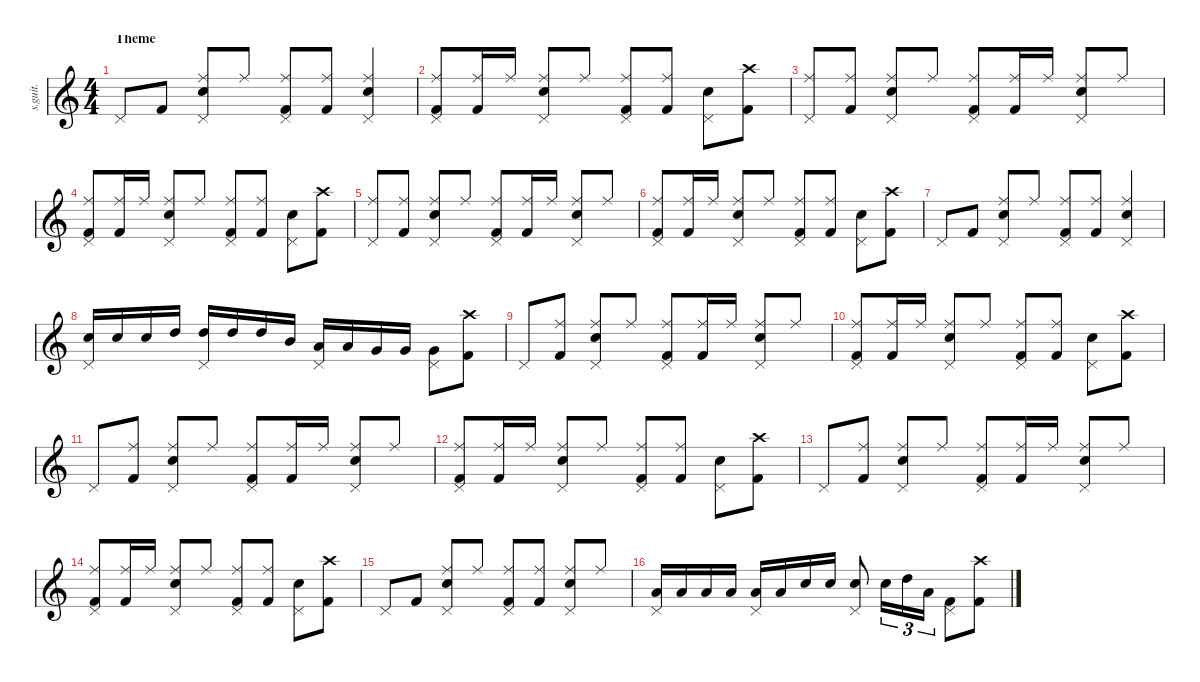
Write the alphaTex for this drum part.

\defaultSystemsLayout 4
\hideDynamics
\bracketExtendMode nobrackets
\track ("Nicko McBrain" "s.guit.") {instrument percussion}
\staff {score}
\articulation defaults
\ts (4 4)
\section ("" "Theme")
\tempo (162 hide)
\clef g2
\ks c "Pedal Hi-Hat (hit)".8{dy mf} "Kick (hit) 2".8
("Pedal Hi-Hat (hit)" "Snare (hit) 2" "Ride (middle)").8 "Ride (middle)".8 ("Ride (middle)" "Pedal Hi-Hat (hit)" "Kick (hit) 2").8 ("Ride (middle)" "Kick (hit) 2").8 ("Ride (middle)" "Snare (hit) 2" "Pedal Hi-Hat (hit)").4 |
("Ride (middle)" "Pedal Hi-Hat (hit)" "Kick (hit) 2").8 ("Ride (middle)" "Kick (hit) 2").16 "Ride (middle)".16 ("Ride (middle)" "Snare (hit) 2" "Pedal Hi-Hat (hit)").8 "Ride (middle)".8 ("Pedal Hi-Hat (hit)" "Kick (hit) 2" "Ride (middle)").8 ("Kick (hit) 2" "Ride (middle)").8 ("Snare (hit) 2" "Pedal Hi-Hat (hit)").8 ("Crash high (hit)" "Kick (hit) 2").8 |
("Ride (middle)" "Pedal Hi-Hat (hit)").8 ("Ride (middle)" "Kick (hit) 2").8 ("Ride (middle)" "Snare (hit) 2" "Pedal Hi-Hat (hit)").8 "Ride (middle)".8 ("Ride (middle)" "Pedal Hi-Hat (hit)" "Kick (hit) 2").8 ("Ride (middle)" "Kick (hit) 2").16 "Ride (middle)".16 ("Ride (middle)" "Snare (hit) 2" "Pedal Hi-Hat (hit)").8 "Ride (middle)".8 |
("Ride (middle)" "Pedal Hi-Hat (hit)" "Kick (hit) 2").8 ("Ride (middle)" "Kick (hit) 2").16 "Ride (middle)".16 ("Ride (middle)" "Snare (hit) 2" "Pedal Hi-Hat (hit)").8 "Ride (middle)".8 ("Pedal Hi-Hat (hit)" "Kick (hit) 2" "Ride (middle)").8 ("Kick (hit) 2" "Ride (middle)").8 ("Snare (hit) 2" "Pedal Hi-Hat (hit)").8 ("Crash high (hit)" "Kick (hit) 2").8 |
("Ride (middle)" "Pedal Hi-Hat (hit)").8 ("Ride (middle)" "Kick (hit) 2").8 ("Ride (middle)" "Snare (hit) 2" "Pedal Hi-Hat (hit)").8 "Ride (middle)".8 ("Ride (middle)" "Pedal Hi-Hat (hit)" "Kick (hit) 2").8 ("Ride (middle)" "Kick (hit) 2").16 "Ride (middle)".16 ("Ride (middle)" "Snare (hit) 2" "Pedal Hi-Hat (hit)").8 "Ride (middle)".8 |
("Ride (middle)" "Pedal Hi-Hat (hit)" "Kick (hit) 2").8 ("Ride (middle)" "Kick (hit) 2").16 "Ride (middle)".16 ("Ride (middle)" "Snare (hit) 2" "Pedal Hi-Hat (hit)").8 "Ride (middle)".8 ("Pedal Hi-Hat (hit)" "Kick (hit) 2" "Ride (middle)").8 ("Kick (hit) 2" "Ride (middle)").8 ("Snare (hit) 2" "Pedal Hi-Hat (hit)").8 ("Crash high (hit)" "Kick (hit) 2").8 |
"Pedal Hi-Hat (hit)".8 "Kick (hit) 2".8 ("Pedal Hi-Hat (hit)" "Snare (hit) 2" "Ride (middle)").8 "Ride (middle)".8 ("Ride (middle)" "Pedal Hi-Hat (hit)" "Kick (hit) 2").8 ("Ride (middle)" "Kick (hit) 2").8 ("Ride (middle)" "Snare (hit) 2" "Pedal Hi-Hat (hit)").4 |
("Snare (hit) 2" "Pedal Hi-Hat (hit)").16 "Snare (hit) 2".16 "Snare (hit) 2".16 "High Tom (hit)".16 ("High Tom (hit)" "Pedal Hi-Hat (hit)").16 "High Tom (hit)".16 "High Tom (hit)".16 "Mid Tom (hit)".16 ("Low Tom (hit)" "Pedal Hi-Hat (hit)").16 "Low Tom (hit)".16 "Very Low Tom (hit)".16 "Very Low Tom (hit)".16 ("Very Low Tom (hit)" "Pedal Hi-Hat (hit)").8 ("Kick (hit) 2" "Crash high (hit)").8 |
"Pedal Hi-Hat (hit)".8 ("Ride (middle)" "Kick (hit) 2").8 ("Ride (middle)" "Snare (hit) 2" "Pedal Hi-Hat (hit)").8 "Ride (middle)".8 ("Ride (middle)" "Pedal Hi-Hat (hit)" "Kick (hit) 2").8 ("Ride (middle)" "Kick (hit) 2").16 "Ride (middle)".16 ("Ride (middle)" "Snare (hit) 2" "Pedal Hi-Hat (hit)").8 "Ride (middle)".8 |
("Ride (middle)" "Pedal Hi-Hat (hit)" "Kick (hit) 2").8 ("Ride (middle)" "Kick (hit) 2").16 "Ride (middle)".16 ("Ride (middle)" "Snare (hit) 2" "Pedal Hi-Hat (hit)").8 "Ride (middle)".8 ("Pedal Hi-Hat (hit)" "Kick (hit) 2" "Ride (middle)").8 ("Kick (hit) 2" "Ride (middle)").8 ("Snare (hit) 2" "Pedal Hi-Hat (hit)").8 ("Crash high (hit)" "Kick (hit) 2").8 |
"Pedal Hi-Hat (hit)".8 ("Ride (middle)" "Kick (hit) 2").8 ("Ride (middle)" "Snare (hit) 2" "Pedal Hi-Hat (hit)").8 "Ride (middle)".8 ("Ride (middle)" "Pedal Hi-Hat (hit)" "Kick (hit) 2").8 ("Ride (middle)" "Kick (hit) 2").16 "Ride (middle)".16 ("Ride (middle)" "Snare (hit) 2" "Pedal Hi-Hat (hit)").8 "Ride (middle)".8 |
("Ride (middle)" "Pedal Hi-Hat (hit)" "Kick (hit) 2").8 ("Ride (middle)" "Kick (hit) 2").16 "Ride (middle)".16 ("Ride (middle)" "Snare (hit) 2" "Pedal Hi-Hat (hit)").8 "Ride (middle)".8 ("Pedal Hi-Hat (hit)" "Kick (hit) 2" "Ride (middle)").8 ("Kick (hit) 2" "Ride (middle)").8 ("Snare (hit) 2" "Pedal Hi-Hat (hit)").8 ("Crash high (hit)" "Kick (hit) 2").8 |
"Pedal Hi-Hat (hit)".8 ("Ride (middle)" "Kick (hit) 2").8 ("Ride (middle)" "Snare (hit) 2" "Pedal Hi-Hat (hit)").8 "Ride (middle)".8 ("Ride (middle)" "Pedal Hi-Hat (hit)" "Kick (hit) 2").8 ("Ride (middle)" "Kick (hit) 2").16 "Ride (middle)".16 ("Ride (middle)" "Snare (hit) 2" "Pedal Hi-Hat (hit)").8 "Ride (middle)".8 |
("Ride (middle)" "Pedal Hi-Hat (hit)" "Kick (hit) 2").8 ("Ride (middle)" "Kick (hit) 2").16 "Ride (middle)".16 ("Ride (middle)" "Snare (hit) 2" "Pedal Hi-Hat (hit)").8 "Ride (middle)".8 ("Pedal Hi-Hat (hit)" "Kick (hit) 2" "Ride (middle)").8 ("Kick (hit) 2" "Ride (middle)").8 ("Snare (hit) 2" "Pedal Hi-Hat (hit)").8 ("Crash high (hit)" "Kick (hit) 2").8 |
"Pedal Hi-Hat (hit)".8 "Kick (hit) 2".8 ("Pedal Hi-Hat (hit)" "Snare (hit) 2" "Ride (middle)").8 "Ride (middle)".8 ("Ride (middle)" "Pedal Hi-Hat (hit)" "Kick (hit) 2").8 ("Ride (middle)" "Kick (hit) 2").8 ("Pedal Hi-Hat (hit)" "Snare (hit) 2" "Ride (middle)").8 "Ride (middle)".8 |
("Pedal Hi-Hat (hit)" "Low Tom (hit)").16 "Low Tom (hit)".16 "Low Tom (hit)".16 "Low Tom (hit)".16 ("Pedal Hi-Hat (hit)" "Low Tom (hit)").16 "Low Tom (hit)".16 "Snare (hit) 2".16 "Snare (hit) 2".16 ("Pedal Hi-Hat (hit)" "Snare (hit) 2").8 "Snare (hit) 2".16{tu (3 2)} "High Tom (hit)".16{tu (3 2)} "Low Tom (hit)".16{tu (3 2)} ("Pedal Hi-Hat (hit)" "Kick (hit) 2").8 ("Kick (hit) 2" "Crash high (hit)").8
